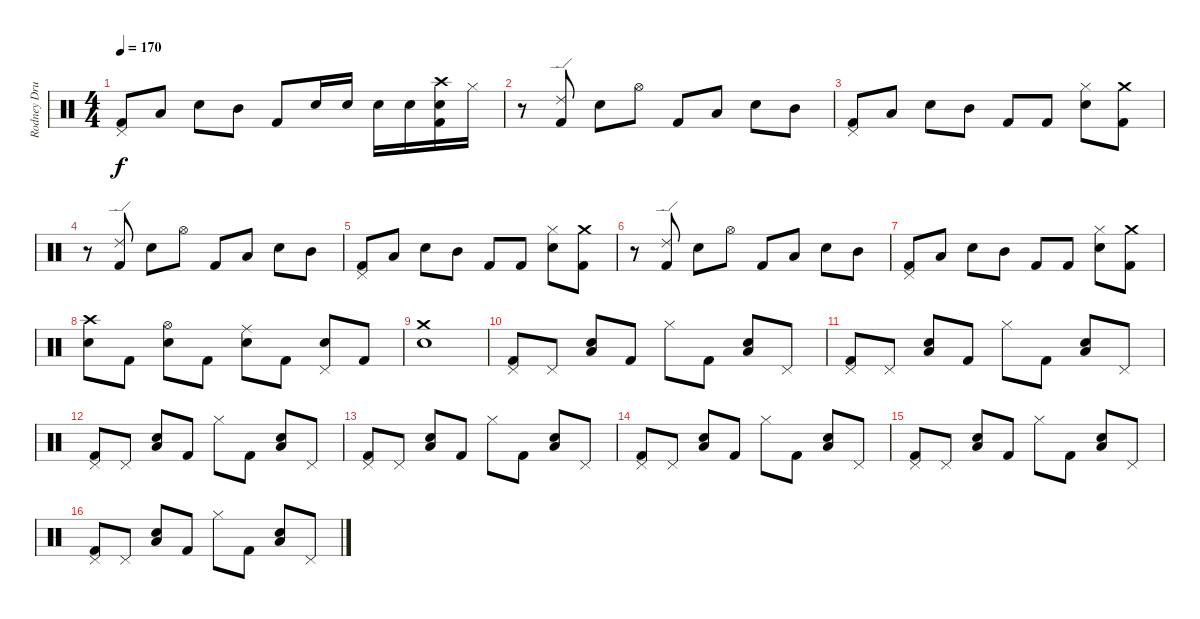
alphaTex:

\track ("Rodney Drums" "Rodney Dru") {instrument percussion}
\staff {score}
\articulation defaults
\ts (4 4)
\tempo 170
\clef neutral
\ks c
("Pedal Hi-Hat (hit)" "Kick (hit) 2").8{dy f} "Low Tom (hit)".8 "Electric Snare (hit)".8 "Mid Tom (hit)".8 "Kick (hit) 2".8 "Electric Snare (hit)".16 "Electric Snare (hit)".16 "Electric Snare (hit)".16 "Electric Snare (hit)".16 ("Crash high (hit)" "Electric Snare (hit)" "Kick (hit) 2").16 "Hi-Hat (closed)".16 |
r.8 ("Ride (edge) 2" "Kick (hit) 2").8 "Electric Snare (hit)".8 "Hi-Hat (open)".8 "Kick (hit) 2".8 "Low Tom (hit)".8 "Electric Snare (hit)".8 "Mid Tom (hit)".8 |
("Pedal Hi-Hat (hit)" "Kick (hit) 2").8 "Low Tom (hit)".8 "Electric Snare (hit)".8 "Mid Tom (hit)".8 "Kick (hit) 2".8 "Kick (hit) 2".8 ("Hi-Hat (closed)" "Electric Snare (hit)").8 ("Crash medium (hit)" "Kick (hit) 2").8 |
r.8 ("Ride (edge) 2" "Kick (hit) 2").8 "Electric Snare (hit)".8 "Hi-Hat (open)".8 "Kick (hit) 2".8 "Low Tom (hit)".8 "Electric Snare (hit)".8 "Mid Tom (hit)".8 |
("Pedal Hi-Hat (hit)" "Kick (hit) 2").8 "Low Tom (hit)".8 "Electric Snare (hit)".8 "Mid Tom (hit)".8 "Kick (hit) 2".8 "Kick (hit) 2".8 ("Hi-Hat (closed)" "Electric Snare (hit)").8 ("Crash medium (hit)" "Kick (hit) 2").8 |
r.8 ("Ride (edge) 2" "Kick (hit) 2").8 "Electric Snare (hit)".8 "Hi-Hat (open)".8 "Kick (hit) 2".8 "Low Tom (hit)".8 "Electric Snare (hit)".8 "Mid Tom (hit)".8 |
("Pedal Hi-Hat (hit)" "Kick (hit) 2").8 "Low Tom (hit)".8 "Electric Snare (hit)".8 "Mid Tom (hit)".8 "Kick (hit) 2".8 "Kick (hit) 2".8 ("Hi-Hat (closed)" "Electric Snare (hit)").8 ("Crash medium (hit)" "Kick (hit) 2").8 |
("Crash high (hit)" "Electric Snare (hit)").8 "Kick (hit) 2".8 ("Hi-Hat (open)" "Electric Snare (hit)").8 "Kick (hit) 2".8 ("Ride (middle)" "Electric Snare (hit)").8 "Kick (hit) 2".8 ("Pedal Hi-Hat (hit)" "Electric Snare (hit)").8 "Kick (hit) 2".8 |
("Crash medium (hit)" "Electric Snare (hit)").1 |
("Pedal Hi-Hat (hit)" "Kick (hit) 2").8 "Pedal Hi-Hat (hit)".8 ("Electric Snare (hit)" "Low Tom (hit)").8 "Kick (hit) 2".8 "Hi-Hat (closed)".8 "Kick (hit) 2".8 ("Electric Snare (hit)" "Low Tom (hit)").8 "Pedal Hi-Hat (hit)".8 |
("Pedal Hi-Hat (hit)" "Kick (hit) 2").8 "Pedal Hi-Hat (hit)".8 ("Electric Snare (hit)" "Low Tom (hit)").8 "Kick (hit) 2".8 "Hi-Hat (closed)".8 "Kick (hit) 2".8 ("Electric Snare (hit)" "Low Tom (hit)").8 "Pedal Hi-Hat (hit)".8 |
("Pedal Hi-Hat (hit)" "Kick (hit) 2").8 "Pedal Hi-Hat (hit)".8 ("Electric Snare (hit)" "Low Tom (hit)").8 "Kick (hit) 2".8 "Hi-Hat (closed)".8 "Kick (hit) 2".8 ("Electric Snare (hit)" "Low Tom (hit)").8 "Pedal Hi-Hat (hit)".8 |
("Pedal Hi-Hat (hit)" "Kick (hit) 2").8 "Pedal Hi-Hat (hit)".8 ("Electric Snare (hit)" "Low Tom (hit)").8 "Kick (hit) 2".8 "Hi-Hat (closed)".8 "Kick (hit) 2".8 ("Electric Snare (hit)" "Low Tom (hit)").8 "Pedal Hi-Hat (hit)".8 |
("Pedal Hi-Hat (hit)" "Kick (hit) 2").8 "Pedal Hi-Hat (hit)".8 ("Electric Snare (hit)" "Low Tom (hit)").8 "Kick (hit) 2".8 "Hi-Hat (closed)".8 "Kick (hit) 2".8 ("Electric Snare (hit)" "Low Tom (hit)").8 "Pedal Hi-Hat (hit)".8 |
("Pedal Hi-Hat (hit)" "Kick (hit) 2").8 "Pedal Hi-Hat (hit)".8 ("Electric Snare (hit)" "Low Tom (hit)").8 "Kick (hit) 2".8 "Hi-Hat (closed)".8 "Kick (hit) 2".8 ("Electric Snare (hit)" "Low Tom (hit)").8 "Pedal Hi-Hat (hit)".8 |
("Pedal Hi-Hat (hit)" "Kick (hit) 2").8 "Pedal Hi-Hat (hit)".8 ("Electric Snare (hit)" "Low Tom (hit)").8 "Kick (hit) 2".8 "Hi-Hat (closed)".8 "Kick (hit) 2".8 ("Electric Snare (hit)" "Low Tom (hit)").8 "Pedal Hi-Hat (hit)".8
